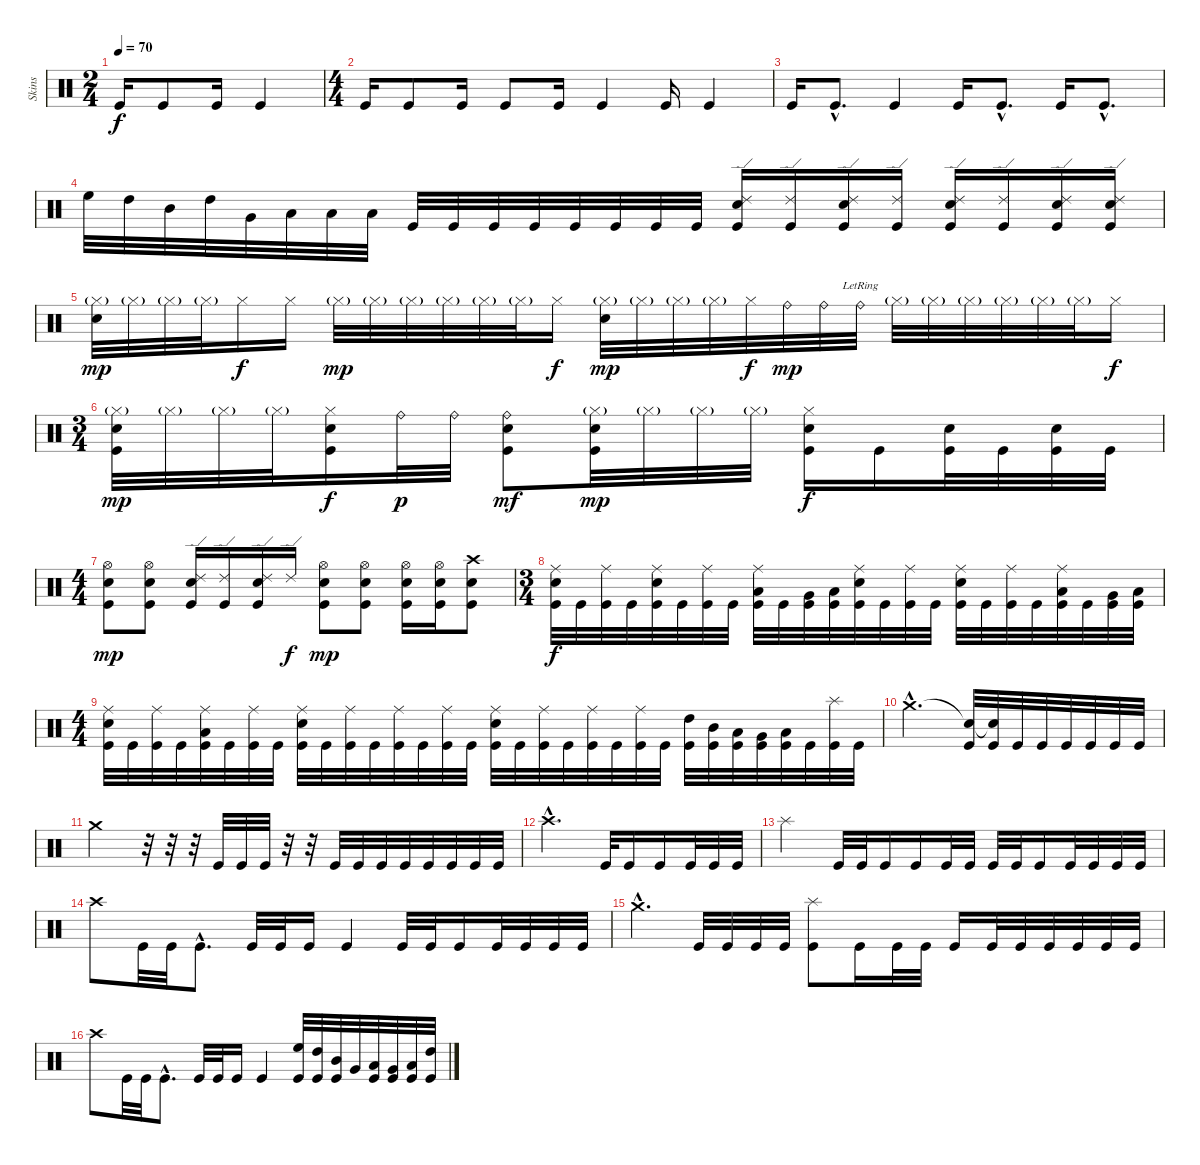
\track ("Skins" "Skins") {instrument percussion}
\staff {score}
\articulation defaults
\ts (2 4)
\tempo 70
\clef neutral
\ks c "Kick (hit)".16{dy f} "Kick (hit)".8 "Kick (hit)".16 "Kick (hit)".4
|
\ts (4 4)
"Kick (hit)".16 "Kick (hit)".8 "Kick (hit)".16 "Kick (hit)".8 "Kick (hit)".16 "Kick (hit)".4 "Kick (hit)".16 "Kick (hit)".4 |
"Kick (hit)".16 "Kick (hit)"{hac}.8{d} "Kick (hit)".4 "Kick (hit)".16 "Kick (hit)"{hac}.8{d} "Kick (hit)".16 "Kick (hit)"{hac}.8{d} |
"High Floor Tom (hit)".32 "High Tom (hit)".32 "Mid Tom (hit)".32 "High Tom (hit)".32 "Very Low Tom (hit)".32 "Low Floor Tom (hit)".32 "Low Floor Tom (hit)".32 "Low Floor Tom (hit)".32 "Kick (hit)".32 "Kick (hit)".32 "Kick (hit)".32 "Kick (hit)".32 "Kick (hit)".32 "Kick (hit)".32 "Kick (hit)".32 "Kick (hit)".32 ("Ride (edge) 2" "Snare (hit) 2" "Kick (hit)").16 ("Ride (edge) 2" "Kick (hit)").16 ("Ride (edge) 2" "Electric Snare (hit)" "Kick (hit)").16 ("Ride (edge) 2" "Kick (hit)").16 ("Ride (edge) 2" "Electric Snare (hit)" "Kick (hit)").16 ("Ride (edge) 2" "Kick (hit)").16 ("Ride (edge) 2" "Snare (hit) 2" "Kick (hit)").16 ("Ride (edge) 2" "Snare (hit) 2" "Kick (hit)").16 |
("Hi-Hat (closed)"{g} "Snare (hit) 2").32{dy mp} "Hi-Hat (closed)"{g}.32 "Hi-Hat (closed)"{g}.32 "Hi-Hat (closed)"{g}.32 "Hi-Hat (closed)".16{dy f} "Hi-Hat (closed)".16 "Hi-Hat (closed)"{g}.32{dy mp} "Hi-Hat (closed)"{g}.32 "Hi-Hat (closed)"{g}.32 "Hi-Hat (closed)"{g}.32 "Hi-Hat (closed)"{g}.32 "Hi-Hat (closed)"{g}.32 "Hi-Hat (closed)".16{dy f} ("Hi-Hat (closed)"{g} "Snare (hit) 2").32{dy mp} "Hi-Hat (closed)"{g}.32 "Hi-Hat (closed)"{g}.32 "Hi-Hat (closed)"{g}.32 "Hi-Hat (closed)".32{dy f} "Ride (bell)".32{dy mp} "Ride (bell)".32 "Ride (bell)"{lr}.32 "Hi-Hat (closed)"{g}.32 "Hi-Hat (closed)"{g}.32 "Hi-Hat (closed)"{g}.32 "Hi-Hat (closed)"{g}.32 "Hi-Hat (closed)"{g}.32 "Hi-Hat (closed)"{g}.32 "Hi-Hat (closed)".16{dy f} |
\ts (3 4)
("Hi-Hat (closed)"{g} "Snare (hit) 2" "Kick (hit)").32{dy mp} "Hi-Hat (closed)"{g}.32 "Hi-Hat (closed)"{g}.32 "Hi-Hat (closed)"{g}.32 ("Hi-Hat (closed)" "Snare (hit) 2" "Kick (hit)").16{dy f} "Ride (bell)".32{dy p} "Ride (bell)".32 ("Ride (bell)" "Snare (hit) 2" "Kick (hit)").8{dy mf} ("Hi-Hat (closed)"{g} "Snare (hit) 2" "Kick (hit)").32{dy mp} "Hi-Hat (closed)"{g}.32 "Hi-Hat (closed)"{g}.32 "Hi-Hat (closed)"{g}.32 ("Hi-Hat (closed)" "Snare (hit) 2" "Kick (hit)").16{dy f} "Kick (hit)".16 ("Snare (hit) 2" "Kick (hit)").32 "Kick (hit)".32 ("Snare (hit) 2" "Kick (hit)").32 "Kick (hit)".32 |
\ts (4 4)
("Hi-Hat (open)" "Snare (hit) 2" "Kick (hit)").8{dy mp} ("Hi-Hat (open)" "Snare (hit) 2" "Kick (hit)").8 ("Ride (edge) 2" "Electric Snare (hit)" "Kick (hit)").16 ("Ride (edge) 2" "Kick (hit)").16 ("Ride (edge) 2" "Electric Snare (hit)" "Kick (hit)").16 "Ride (edge) 2".16{dy f} ("Hi-Hat (open)" "Snare (hit) 2" "Kick (hit)").8{dy mp} ("Hi-Hat (open)" "Snare (hit) 2" "Kick (hit)").8 ("Hi-Hat (open)" "Snare (hit) 2" "Kick (hit)").16 ("Hi-Hat (open)" "Snare (hit) 2" "Kick (hit)").16 ("Crash high (hit)" "Electric Snare (hit)" "Kick (hit)").8 |
\ts (3 4)
("Ride (middle)" "Snare (hit) 2" "Kick (hit)").32{dy f} "Kick (hit)".32 ("Ride (middle)" "Kick (hit)").32 "Kick (hit)".32 ("Ride (middle)" "Snare (hit) 2" "Kick (hit)").32 "Kick (hit)".32 ("Ride (middle)" "Kick (hit)").32 "Kick (hit)".32 ("Ride (middle)" "Low Tom (hit)" "Kick (hit)").32 "Kick (hit)".32 ("Very Low Tom (hit)" "Kick (hit)").32 ("Low Floor Tom (hit)" "Kick (hit)").32 ("Ride (middle)" "Snare (hit) 2" "Kick (hit)").32 "Kick (hit)".32 ("Ride (middle)" "Kick (hit)").32 "Kick (hit)".32 ("Ride (middle)" "Snare (hit) 2" "Kick (hit)").32 "Kick (hit)".32 ("Ride (middle)" "Kick (hit)").32 "Kick (hit)".32 ("Ride (middle)" "Low Tom (hit)" "Kick (hit)").32 "Kick (hit)".32 ("Very Low Tom (hit)" "Kick (hit)").32 ("Low Floor Tom (hit)" "Kick (hit)").32 |
\ts (4 4)
("Ride (middle)" "Electric Snare (hit)" "Kick (hit)").32 "Kick (hit)".32 ("Ride (middle)" "Kick (hit)").32 "Kick (hit)".32 ("Ride (middle)" "Low Floor Tom (hit)" "Kick (hit)").32 "Kick (hit)".32 ("Ride (middle)" "Kick (hit)").32 "Kick (hit)".32 ("Ride (middle)" "Electric Snare (hit)" "Kick (hit)").32 "Kick (hit)".32 ("Ride (middle)" "Kick (hit)").32 "Kick (hit)".32 ("Ride (middle)" "Kick (hit)").32 "Kick (hit)".32 ("Ride (middle)" "Kick (hit)").32 "Kick (hit)".32 ("Ride (middle)" "Electric Snare (hit)" "Kick (hit)").32 "Kick (hit)".32 ("Ride (middle)" "Kick (hit)").32 "Kick (hit)".32 ("Ride (middle)" "Kick (hit)").32 "Kick (hit)".32 ("Ride (middle)" "Kick (hit)").32 "Kick (hit)".32 ("High Tom (hit)" "Kick (hit)").32 ("Mid Tom (hit)" "Kick (hit)").32 ("Low Tom (hit)" "Kick (hit)").32 ("Very Low Tom (hit)" "Kick (hit)").32 ("Low Floor Tom (hit)" "Kick (hit)").32 "Kick (hit)".32 ("Splash (hit)" "Kick (hit)").32 "Kick (hit)".32 |
"Crash medium (hit)"{hac}.2{d} ("Snare (hit)"{t} "Kick (hit)").32 ("Snare (hit)"{t} "Kick (hit)").32 "Kick (hit)".32 "Kick (hit)".32 "Kick (hit)".32 "Kick (hit)".32 "Kick (hit)".32 "Kick (hit)".32 |
"Crash medium (hit)".2 r.32 r.32 r.32 "Kick (hit)".32 "Kick (hit)".32 "Kick (hit)".32 r.32 r.32 "Kick (hit)".32 "Kick (hit)".32 "Kick (hit)".32 "Kick (hit)".32 "Kick (hit)".32 "Kick (hit)".32 "Kick (hit)".32 "Kick (hit)".32 |
"Crash high (hit)"{hac}.2{d} "Kick (hit)".32 "Kick (hit)".16 "Kick (hit)".16 "Kick (hit)".32 "Kick (hit)".32 "Kick (hit)".32 |
"Splash (hit)".2 "Kick (hit)".32 "Kick (hit)".32 "Kick (hit)".16 "Kick (hit)".16 "Kick (hit)".32 "Kick (hit)".32 "Kick (hit)".32 "Kick (hit)".32 "Kick (hit)".16 "Kick (hit)".32 "Kick (hit)".32 "Kick (hit)".32 "Kick (hit)".32 |
"Crash high (hit)".8 "Kick (hit)".32 "Kick (hit)".32 "Kick (hit)"{hac}.8{d} "Kick (hit)".32 "Kick (hit)".32 "Kick (hit)".16 "Kick (hit)".4 "Kick (hit)".32 "Kick (hit)".32 "Kick (hit)".16 "Kick (hit)".32 "Kick (hit)".32 "Kick (hit)".32 "Kick (hit)".32 |
"Crash medium (hit)"{hac}.4{d} "Kick (hit)".32 "Kick (hit)".32 "Kick (hit)".32 "Kick (hit)".32 ("Splash (hit)" "Kick (hit)").8 "Kick (hit)".16 "Kick (hit)".32 "Kick (hit)".32 "Kick (hit)".16 "Kick (hit)".32 "Kick (hit)".32 "Kick (hit)".32 "Kick (hit)".32 "Kick (hit)".32 "Kick (hit)".32 |
"Crash high (hit)".8 "Kick (hit)".32 "Kick (hit)".32 "Kick (hit)"{hac}.8{d} "Kick (hit)".32 "Kick (hit)".32 "Kick (hit)".16 "Kick (hit)".4 ("High Floor Tom (hit)" "Kick (hit)").32 ("High Tom (hit)" "Kick (hit)").32 ("Mid Tom (hit)" "Kick (hit)").32 "Very Low Tom (hit)".32 ("Low Floor Tom (hit)" "Kick (hit)").32 ("Very Low Tom (hit)" "Kick (hit)").32 ("Low Floor Tom (hit)" "Kick (hit)").32 ("High Tom (hit)" "Kick (hit)").32
